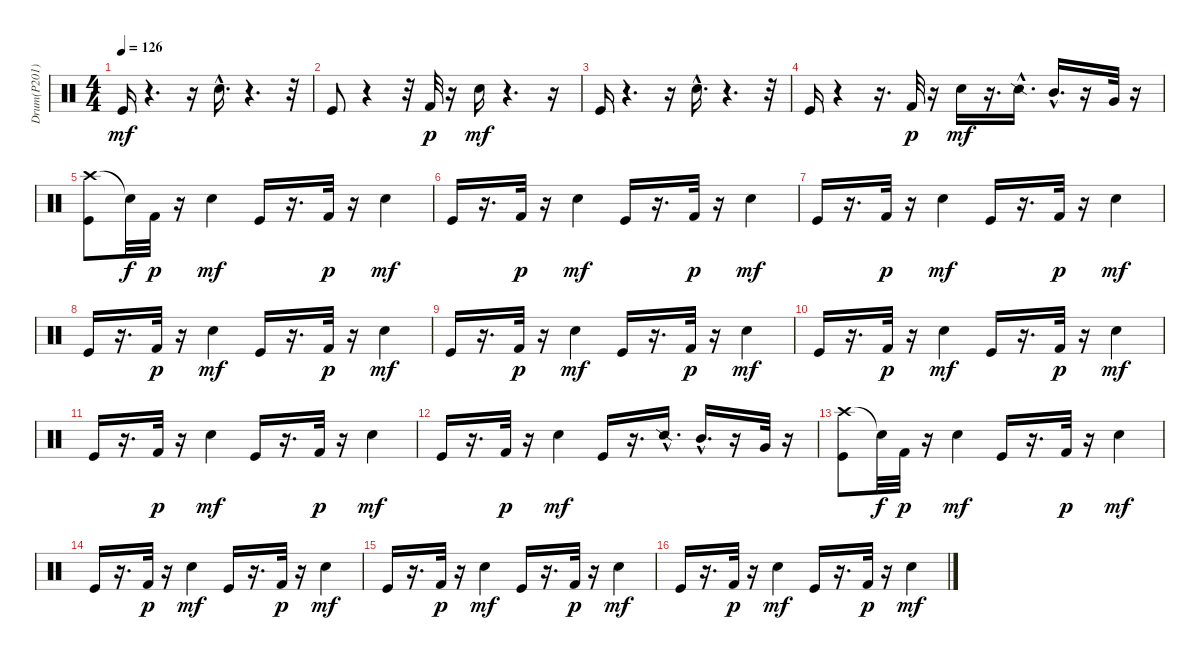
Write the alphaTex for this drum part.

\track ("Drum(P201)" "Drum(P201)") {instrument percussion}
\staff {score}
\articulation defaults
\ts (4 4)
\tempo 126
\clef neutral
\ks c "Kick (hit)".16{dy mf}
r.4{d} r.16 "Electric Snare (hit)"{hac}.16{d} r.4{d} r.32 |
"Kick (hit)".8 r.4 r.32 "Kick (hit) 2".32{dy p} r.16 "Electric Snare (hit)".16{dy mf} r.4{d} r.16 |
"Kick (hit)".16 r.4{d} r.16 "Electric Snare (hit)"{hac}.16{d} r.4{d} r.32 |
"Kick (hit)".16 r.4 r.16{d} "Kick (hit) 2".32{dy p} r.16 "Electric Snare (hit)".16{dy mf} r.16{d} "Snare (side stick) 2"{hac}.16{d} "Mid Tom (hit)"{hac}.16{d} r.16 "Very Low Tom (hit)".32 r.16 |
("Crash high (hit)" "Kick (hit)").8 "Snare (hit)"{t}.32{dy f} "Kick (hit) 2".32{dy p} r.16 "Snare (hit) 2".4{dy mf} "Kick (hit)".16 r.16{d} "Kick (hit) 2".32{dy p} r.16 "Snare (hit) 2".4{dy mf} |
"Kick (hit)".16 r.16{d} "Kick (hit) 2".32{dy p} r.16 "Snare (hit) 2".4{dy mf} "Kick (hit)".16 r.16{d} "Kick (hit) 2".32{dy p} r.16 "Snare (hit) 2".4{dy mf} |
"Kick (hit)".16 r.16{d} "Kick (hit) 2".32{dy p} r.16 "Snare (hit) 2".4{dy mf} "Kick (hit)".16 r.16{d} "Kick (hit) 2".32{dy p} r.16 "Snare (hit) 2".4{dy mf} |
"Kick (hit)".16 r.16{d} "Kick (hit) 2".32{dy p} r.16 "Snare (hit) 2".4{dy mf} "Kick (hit)".16 r.16{d} "Kick (hit) 2".32{dy p} r.16 "Snare (hit) 2".4{dy mf} |
"Kick (hit)".16 r.16{d} "Kick (hit) 2".32{dy p} r.16 "Snare (hit) 2".4{dy mf} "Kick (hit)".16 r.16{d} "Kick (hit) 2".32{dy p} r.16 "Snare (hit) 2".4{dy mf} |
"Kick (hit)".16 r.16{d} "Kick (hit) 2".32{dy p} r.16 "Snare (hit) 2".4{dy mf} "Kick (hit)".16 r.16{d} "Kick (hit) 2".32{dy p} r.16 "Snare (hit) 2".4{dy mf} |
"Kick (hit)".16 r.16{d} "Kick (hit) 2".32{dy p} r.16 "Snare (hit) 2".4{dy mf} "Kick (hit)".16 r.16{d} "Kick (hit) 2".32{dy p} r.16 "Snare (hit) 2".4{dy mf} |
"Kick (hit)".16 r.16{d} "Kick (hit) 2".32{dy p} r.16 "Snare (hit) 2".4{dy mf} "Kick (hit)".16 r.16{d} "Snare (side stick) 2"{hac}.16{d} "Mid Tom (hit)"{hac}.16{d} r.16 "Very Low Tom (hit)".32 r.16 |
("Crash high (hit)" "Kick (hit)").8 "Snare (hit)"{t}.32{dy f} "Kick (hit) 2".32{dy p} r.16 "Snare (hit) 2".4{dy mf} "Kick (hit)".16 r.16{d} "Kick (hit) 2".32{dy p} r.16 "Snare (hit) 2".4{dy mf} |
"Kick (hit)".16 r.16{d} "Kick (hit) 2".32{dy p} r.16 "Snare (hit) 2".4{dy mf} "Kick (hit)".16 r.16{d} "Kick (hit) 2".32{dy p} r.16 "Snare (hit) 2".4{dy mf} |
"Kick (hit)".16 r.16{d} "Kick (hit) 2".32{dy p} r.16 "Snare (hit) 2".4{dy mf} "Kick (hit)".16 r.16{d} "Kick (hit) 2".32{dy p} r.16 "Snare (hit) 2".4{dy mf} |
"Kick (hit)".16 r.16{d} "Kick (hit) 2".32{dy p} r.16 "Snare (hit) 2".4{dy mf} "Kick (hit)".16 r.16{d} "Kick (hit) 2".32{dy p} r.16 "Snare (hit) 2".4{dy mf}
